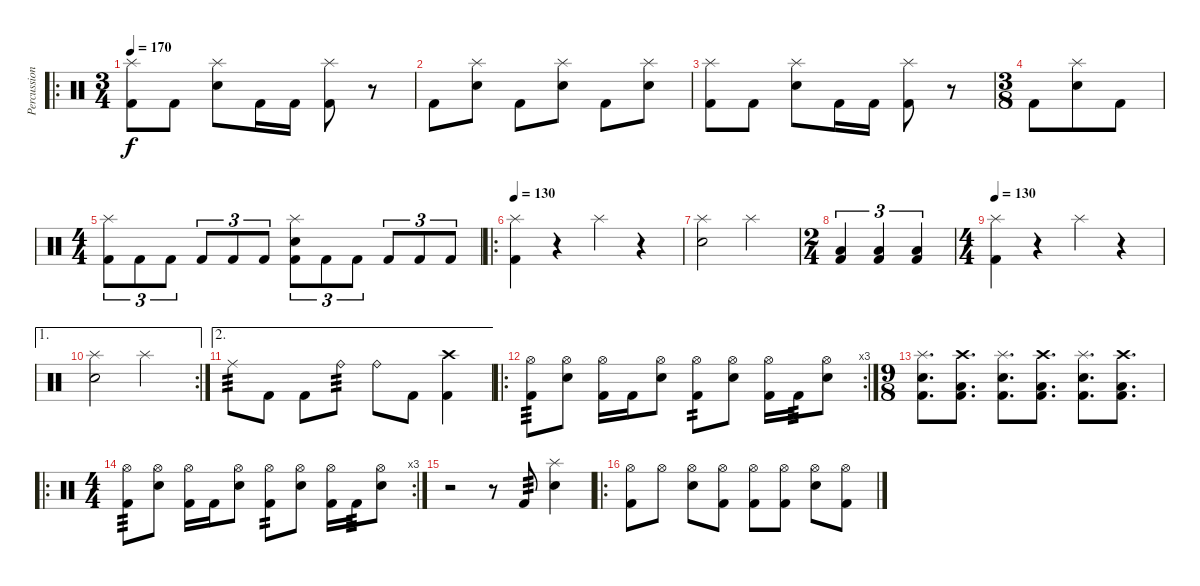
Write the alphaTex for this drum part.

\track ("Percussion" "Percussion") {instrument percussion}
\staff {score}
\articulation defaults
\ro
\ts (3 4)
\tempo 170
\clef neutral
\ks c
("Splash (hit)" "Kick (hit) 2").8{dy f} "Kick (hit) 2".8 ("Splash (hit)" "Electric Snare (hit)").8 "Kick (hit) 2".16 "Kick (hit) 2".16 ("Splash (hit)" "Kick (hit) 2").8 r.8 |
"Kick (hit) 2".8 ("Splash (hit)" "Electric Snare (hit)").8 "Kick (hit) 2".8 ("Splash (hit)" "Electric Snare (hit)").8 "Kick (hit) 2".8 ("Splash (hit)" "Electric Snare (hit)").8 |
("Splash (hit)" "Kick (hit) 2").8 "Kick (hit) 2".8 ("Splash (hit)" "Electric Snare (hit)").8 "Kick (hit) 2".16 "Kick (hit) 2".16 ("Splash (hit)" "Kick (hit) 2").8 r.8 |
\ts (3 8)
"Kick (hit) 2".8 ("Splash (hit)" "Electric Snare (hit)").8 "Kick (hit) 2".8 |
\ts (4 4)
("Splash (hit)" "Kick (hit) 2").8{tu (3 2)} "Kick (hit) 2".8{tu (3 2)} "Kick (hit) 2".8{tu (3 2)} "Kick (hit) 2".8{tu (3 2)} "Kick (hit) 2".8{tu (3 2)} "Kick (hit) 2".8{tu (3 2)} ("Splash (hit)" "Electric Snare (hit)" "Kick (hit) 2").8{tu (3 2)} "Kick (hit) 2".8{tu (3 2)} "Kick (hit) 2".8{tu (3 2)} "Kick (hit) 2".8{tu (3 2)} "Kick (hit) 2".8{tu (3 2)} "Kick (hit) 2".8{tu (3 2)} |
\ro
\tempo 130
("Splash (hit)" "Kick (hit) 2").4 r.4 "Splash (hit)".4 r.4 |
("Splash (hit)" "Electric Snare (hit)").2 "Splash (hit)".2 |
\ts (2 4)
("Low Floor Tom (hit)" "Kick (hit) 2").4{tu (3 2)} ("Low Floor Tom (hit)" "Kick (hit) 2").4{tu (3 2)} ("Low Floor Tom (hit)" "Kick (hit) 2").4{tu (3 2)} |
\ts (4 4)
\tempo 130
("Splash (hit)" "Kick (hit) 2").4 r.4 "Splash (hit)".4 r.4 |
\ae 1
\rc 2
("Splash (hit)" "Electric Snare (hit)").2 "Splash (hit)".2 |
\ae 2 "Ride (middle)".8{tp 3} "Kick (hit) 2".8 "Kick (hit) 2".8 "Ride (bell)".8{tp 3} "Ride (bell)".8 "Kick (hit) 2".8
("Kick (hit) 2" "Crash high (hit)").4 |
\ro
\rc 3
("Hi-Hat (open)" "Kick (hit) 2").8{tp 3} ("Hi-Hat (open)" "Electric Snare (hit)").8 ("Hi-Hat (open)" "Kick (hit) 2").16 "Kick (hit) 2".16 ("Hi-Hat (open)" "Electric Snare (hit)").8 ("Hi-Hat (open)" "Kick (hit) 2").8{tp 2} ("Hi-Hat (open)" "Electric Snare (hit)").8 ("Hi-Hat (open)" "Kick (hit) 2").16 "Kick (hit) 2".16{tp 3} ("Hi-Hat (open)" "Electric Snare (hit)").8 |
\ts (9 8)
("Splash (hit)" "Electric Snare (hit)" "Kick (hit) 2").8{d} ("Crash high (hit)" "Low Floor Tom (hit)" "Kick (hit) 2").8{d} ("Splash (hit)" "Electric Snare (hit)" "Kick (hit) 2").8{d} ("Crash high (hit)" "Low Floor Tom (hit)" "Kick (hit) 2").8{d} ("Splash (hit)" "Electric Snare (hit)" "Kick (hit) 2").8{d} ("Crash high (hit)" "Low Floor Tom (hit)" "Kick (hit) 2").8{d} |
\ro
\rc 3
\ts (4 4)
("Hi-Hat (open)" "Kick (hit) 2").8{tp 3} ("Hi-Hat (open)" "Electric Snare (hit)").8 ("Hi-Hat (open)" "Kick (hit) 2").16 "Kick (hit) 2".16 ("Hi-Hat (open)" "Electric Snare (hit)").8 ("Hi-Hat (open)" "Kick (hit) 2").8{tp 2} ("Hi-Hat (open)" "Electric Snare (hit)").8 ("Hi-Hat (open)" "Kick (hit) 2").16 "Kick (hit) 2".16{tp 3} ("Hi-Hat (open)" "Electric Snare (hit)").8 |
r.2 r.8 "Kick (hit) 2".8{tp 3} ("Splash (hit)" "Electric Snare (hit)").4 |
\ro
("Hi-Hat (open)" "Kick (hit) 2").8 "Hi-Hat (open)".8 ("Hi-Hat (open)" "Electric Snare (hit)").8 ("Hi-Hat (open)" "Kick (hit) 2").8 ("Hi-Hat (open)" "Kick (hit) 2").8 ("Hi-Hat (open)" "Kick (hit) 2").8 ("Hi-Hat (open)" "Electric Snare (hit)").8 ("Hi-Hat (open)" "Kick (hit) 2").8
